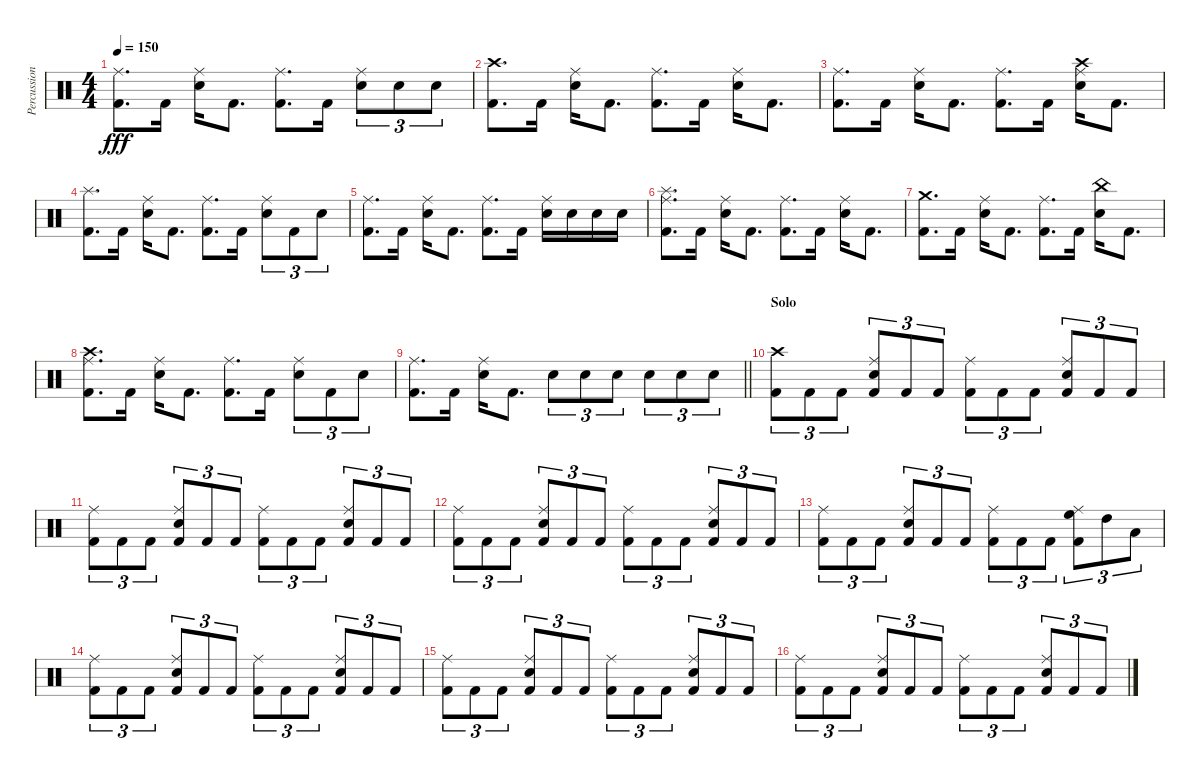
\track ("Percussion" "Percussion") {instrument percussion}
\staff {score}
\articulation defaults
\ts (4 4)
\tempo 150
\clef neutral
\ks c
("Kick (hit) 2" "Ride (middle)").8{d dy fff} "Kick (hit) 2".16 ("Ride (middle)" "Snare (hit) 2").16 "Kick (hit) 2".8{d} ("Ride (middle)" "Kick (hit) 2").8{d} "Kick (hit) 2".16 ("Ride (middle)" "Snare (hit) 2").8{tu (3 2)} "Snare (hit) 2".8{tu (3 2)} "Snare (hit) 2".8{tu (3 2)} |
("Crash high (hit)" "Kick (hit) 2").8{d} "Kick (hit) 2".16 ("Ride (middle)" "Snare (hit) 2").16 "Kick (hit) 2".8{d} ("Ride (middle)" "Kick (hit) 2").8{d} "Kick (hit) 2".16 ("Ride (middle)" "Snare (hit) 2").16 "Kick (hit) 2".8{d} |
("Kick (hit) 2" "Ride (middle)").8{d} "Kick (hit) 2".16 ("Ride (middle)" "Snare (hit) 2").16 "Kick (hit) 2".8{d} ("Ride (middle)" "Kick (hit) 2").8{d} "Kick (hit) 2".16 ("Ride (middle)" "Snare (hit) 2" "Crash high (hit)").16 "Kick (hit) 2".8{d} |
("Splash (hit)" "Kick (hit) 2").8{d} "Kick (hit) 2".16 ("Ride (middle)" "Snare (hit) 2").16 "Kick (hit) 2".8{d} ("Ride (middle)" "Kick (hit) 2").8{d} "Kick (hit) 2".16 ("Ride (middle)" "Snare (hit) 2").8{tu (3 2)} "Kick (hit) 2".8{tu (3 2)} "Snare (hit) 2".8{tu (3 2)} |
("Kick (hit) 2" "Ride (middle)").8{d} "Kick (hit) 2".16 ("Ride (middle)" "Snare (hit) 2").16 "Kick (hit) 2".8{d} ("Ride (middle)" "Kick (hit) 2").8{d} "Kick (hit) 2".16 ("Ride (middle)" "Snare (hit) 2").16 "Snare (hit) 2".16 "Snare (hit) 2".16 "Snare (hit) 2".16 |
("Splash (hit)" "Kick (hit) 2" "Ride (middle)").8{d} "Kick (hit) 2".16 ("Ride (middle)" "Snare (hit) 2").16 "Kick (hit) 2".8{d} ("Ride (middle)" "Kick (hit) 2").8{d} "Kick (hit) 2".16 ("Ride (middle)" "Snare (hit) 2").16 "Kick (hit) 2".8{d} |
("Crash medium (hit)" "Kick (hit) 2").8{d} "Kick (hit) 2".16 ("Ride (middle)" "Snare (hit) 2").16 "Kick (hit) 2".8{d} ("Ride (middle)" "Kick (hit) 2").8{d} "Kick (hit) 2".16 ("China (hit)" "Snare (hit) 2").16 "Kick (hit) 2".8{d} |
("Crash high (hit)" "Kick (hit) 2" "Ride (middle)").8{d} "Kick (hit) 2".16 ("Ride (middle)" "Snare (hit) 2").16 "Kick (hit) 2".8{d} ("Ride (middle)" "Kick (hit) 2").8{d} "Kick (hit) 2".16 ("Ride (middle)" "Snare (hit) 2").8{tu (3 2)} "Kick (hit) 2".8{tu (3 2)} "Snare (hit) 2".8{tu (3 2)} |
\barLineRight lightlight
("Kick (hit) 2" "Ride (middle)").8{d} "Kick (hit) 2".16 ("Ride (middle)" "Snare (hit) 2").16 "Kick (hit) 2".8{d} "Snare (hit) 2".8{tu (3 2)} "Snare (hit) 2".8{tu (3 2)} "Snare (hit) 2".8{tu (3 2)} "Snare (hit) 2".8{tu (3 2)} "Snare (hit) 2".8{tu (3 2)} "Snare (hit) 2".8{tu (3 2)} |
\section ("" "Solo")
("Kick (hit) 2" "Crash high (hit)").8{tu (3 2)} "Kick (hit) 2".8{tu (3 2)} "Kick (hit) 2".8{tu (3 2)} ("Kick (hit) 2" "Snare (hit) 2" "Ride (middle)").8{tu (3 2)} "Kick (hit) 2".8{tu (3 2)} "Kick (hit) 2".8{tu (3 2)} ("Kick (hit) 2" "Ride (middle)").8{tu (3 2)} "Kick (hit) 2".8{tu (3 2)} "Kick (hit) 2".8{tu (3 2)} ("Kick (hit) 2" "Ride (middle)" "Snare (hit) 2").8{tu (3 2)} "Kick (hit) 2".8{tu (3 2)} "Kick (hit) 2".8{tu (3 2)} |
("Kick (hit) 2" "Ride (middle)").8{tu (3 2)} "Kick (hit) 2".8{tu (3 2)} "Kick (hit) 2".8{tu (3 2)} ("Kick (hit) 2" "Snare (hit) 2" "Ride (middle)").8{tu (3 2)} "Kick (hit) 2".8{tu (3 2)} "Kick (hit) 2".8{tu (3 2)} ("Kick (hit) 2" "Ride (middle)").8{tu (3 2)} "Kick (hit) 2".8{tu (3 2)} "Kick (hit) 2".8{tu (3 2)} ("Kick (hit) 2" "Ride (middle)" "Snare (hit) 2").8{tu (3 2)} "Kick (hit) 2".8{tu (3 2)} "Kick (hit) 2".8{tu (3 2)} |
("Kick (hit) 2" "Ride (middle)").8{tu (3 2)} "Kick (hit) 2".8{tu (3 2)} "Kick (hit) 2".8{tu (3 2)} ("Kick (hit) 2" "Snare (hit) 2" "Ride (middle)").8{tu (3 2)} "Kick (hit) 2".8{tu (3 2)} "Kick (hit) 2".8{tu (3 2)} ("Kick (hit) 2" "Ride (middle)").8{tu (3 2)} "Kick (hit) 2".8{tu (3 2)} "Kick (hit) 2".8{tu (3 2)} ("Kick (hit) 2" "Ride (middle)" "Snare (hit) 2").8{tu (3 2)} "Kick (hit) 2".8{tu (3 2)} "Kick (hit) 2".8{tu (3 2)} |
("Kick (hit) 2" "Ride (middle)").8{tu (3 2)} "Kick (hit) 2".8{tu (3 2)} "Kick (hit) 2".8{tu (3 2)} ("Kick (hit) 2" "Snare (hit) 2" "Ride (middle)").8{tu (3 2)} "Kick (hit) 2".8{tu (3 2)} "Kick (hit) 2".8{tu (3 2)} ("Kick (hit) 2" "Ride (middle)").8{tu (3 2)} "Kick (hit) 2".8{tu (3 2)} "Kick (hit) 2".8{tu (3 2)} ("Kick (hit) 2" "Ride (middle)" "High Floor Tom (hit)").8{tu (3 2)} "High Tom (hit)".8{tu (3 2)} "Low Tom (hit)".8{tu (3 2)} |
("Kick (hit) 2" "Ride (middle)").8{tu (3 2)} "Kick (hit) 2".8{tu (3 2)} "Kick (hit) 2".8{tu (3 2)} ("Kick (hit) 2" "Snare (hit) 2" "Ride (middle)").8{tu (3 2)} "Kick (hit) 2".8{tu (3 2)} "Kick (hit) 2".8{tu (3 2)} ("Kick (hit) 2" "Ride (middle)").8{tu (3 2)} "Kick (hit) 2".8{tu (3 2)} "Kick (hit) 2".8{tu (3 2)} ("Kick (hit) 2" "Ride (middle)" "Snare (hit) 2").8{tu (3 2)} "Kick (hit) 2".8{tu (3 2)} "Kick (hit) 2".8{tu (3 2)} |
("Kick (hit) 2" "Ride (middle)").8{tu (3 2)} "Kick (hit) 2".8{tu (3 2)} "Kick (hit) 2".8{tu (3 2)} ("Kick (hit) 2" "Snare (hit) 2" "Ride (middle)").8{tu (3 2)} "Kick (hit) 2".8{tu (3 2)} "Kick (hit) 2".8{tu (3 2)} ("Kick (hit) 2" "Ride (middle)").8{tu (3 2)} "Kick (hit) 2".8{tu (3 2)} "Kick (hit) 2".8{tu (3 2)} ("Kick (hit) 2" "Ride (middle)" "Snare (hit) 2").8{tu (3 2)} "Kick (hit) 2".8{tu (3 2)} "Kick (hit) 2".8{tu (3 2)} |
("Kick (hit) 2" "Ride (middle)").8{tu (3 2)} "Kick (hit) 2".8{tu (3 2)} "Kick (hit) 2".8{tu (3 2)} ("Kick (hit) 2" "Snare (hit) 2" "Ride (middle)").8{tu (3 2)} "Kick (hit) 2".8{tu (3 2)} "Kick (hit) 2".8{tu (3 2)} ("Kick (hit) 2" "Ride (middle)").8{tu (3 2)} "Kick (hit) 2".8{tu (3 2)} "Kick (hit) 2".8{tu (3 2)} ("Kick (hit) 2" "Ride (middle)" "Snare (hit) 2").8{tu (3 2)} "Kick (hit) 2".8{tu (3 2)} "Kick (hit) 2".8{tu (3 2)}
